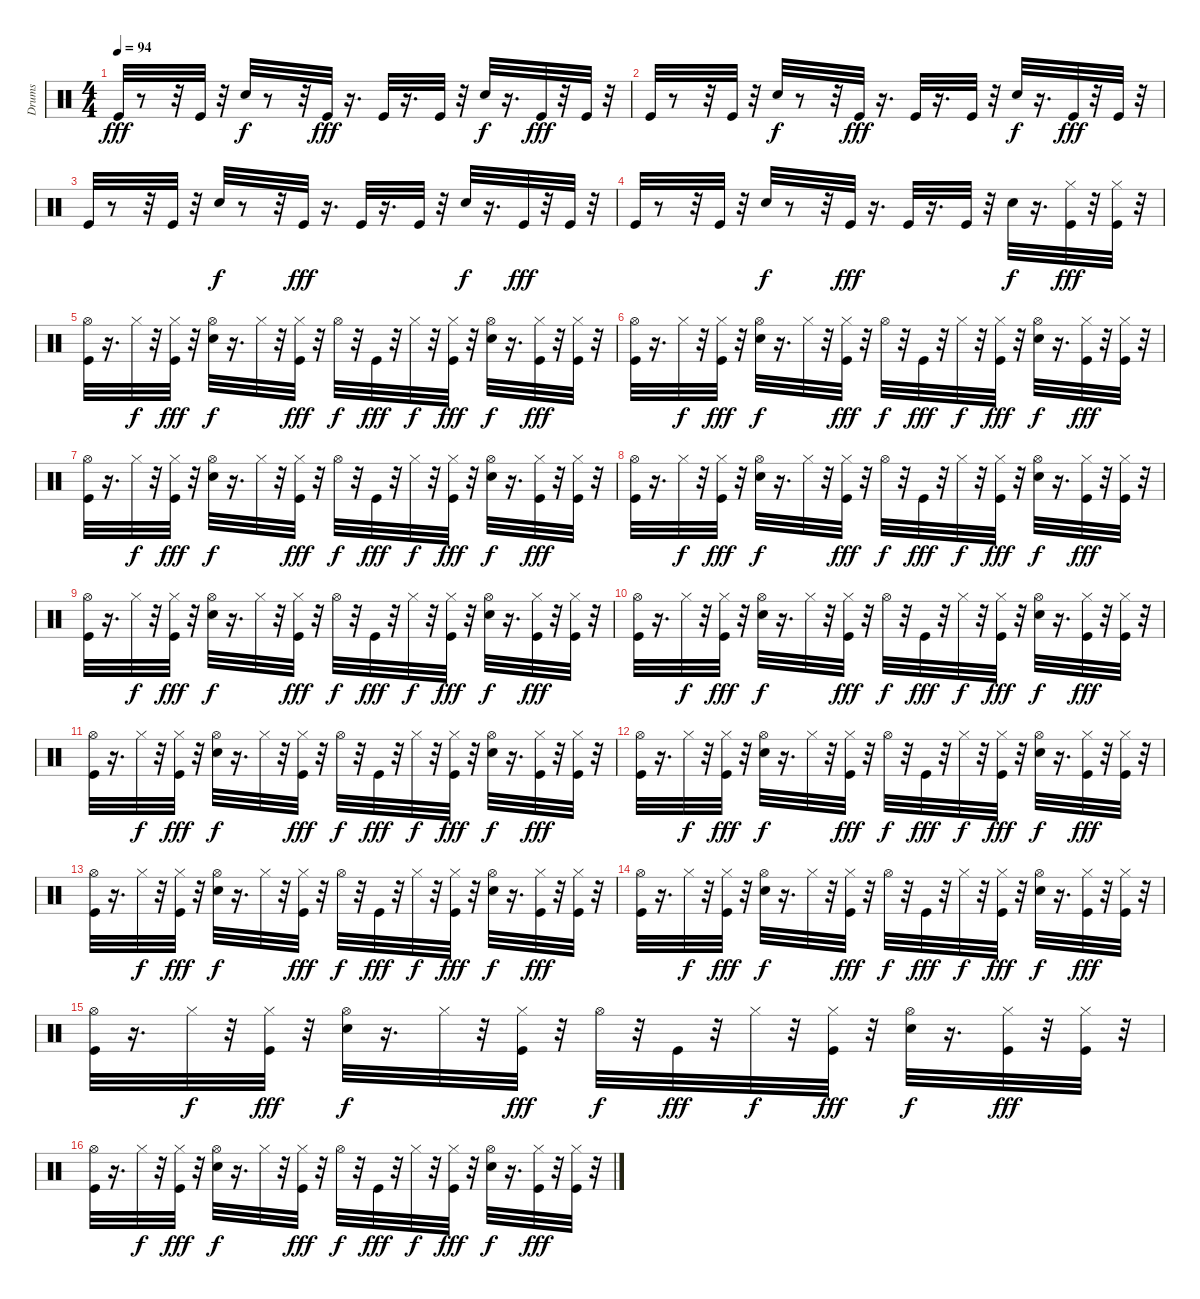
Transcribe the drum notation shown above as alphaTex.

\track ("Drums" "Drums") {instrument percussion}
\staff {score}
\articulation defaults
\ts (4 4)
\tempo 94
\clef neutral
\ks c "Kick (hit)".32{dy fff}
r.8 r.32 "Kick (hit)".32 r.32 "Snare (hit) 2".32{dy f} r.8 r.32 "Kick (hit)".32{dy fff} r.16{d} "Kick (hit)".32 r.16{d} "Kick (hit)".32 r.32 "Snare (hit) 2".32{dy f} r.16{d} "Kick (hit)".32{dy fff} r.32 "Kick (hit)".32 r.32 |
"Kick (hit)".32 r.8 r.32 "Kick (hit)".32 r.32 "Snare (hit) 2".32{dy f} r.8 r.32 "Kick (hit)".32{dy fff} r.16{d} "Kick (hit)".32 r.16{d} "Kick (hit)".32 r.32 "Snare (hit) 2".32{dy f} r.16{d} "Kick (hit)".32{dy fff} r.32 "Kick (hit)".32 r.32 |
"Kick (hit)".32 r.8 r.32 "Kick (hit)".32 r.32 "Snare (hit) 2".32{dy f} r.8 r.32 "Kick (hit)".32{dy fff} r.16{d} "Kick (hit)".32 r.16{d} "Kick (hit)".32 r.32 "Snare (hit) 2".32{dy f} r.16{d} "Kick (hit)".32{dy fff} r.32 "Kick (hit)".32 r.32 |
"Kick (hit)".32 r.8 r.32 "Kick (hit)".32 r.32 "Snare (hit) 2".32{dy f} r.8 r.32 "Kick (hit)".32{dy fff} r.16{d} "Kick (hit)".32 r.16{d} "Kick (hit)".32 r.32 "Snare (hit) 2".32{dy f} r.16{d} ("Kick (hit)" "Hi-Hat (closed)").32{dy fff} r.32 ("Kick (hit)" "Hi-Hat (closed)").32 r.32 |
("Kick (hit)" "Hi-Hat (open)").32 r.16{d} "Hi-Hat (closed)".32{dy f} r.32 ("Kick (hit)" "Hi-Hat (closed)").32{dy fff} r.32 ("Snare (hit) 2" "Hi-Hat (open)").32{dy f} r.16{d} "Hi-Hat (closed)".32 r.32 ("Kick (hit)" "Hi-Hat (closed)").32{dy fff} r.32 "Hi-Hat (open)".32{dy f} r.32 "Kick (hit)".32{dy fff} r.32 "Hi-Hat (closed)".32{dy f} r.32 ("Kick (hit)" "Hi-Hat (closed)").32{dy fff} r.32 ("Snare (hit) 2" "Hi-Hat (open)").32{dy f} r.16{d} ("Kick (hit)" "Hi-Hat (closed)").32{dy fff} r.32 ("Kick (hit)" "Hi-Hat (closed)").32 r.32 |
("Kick (hit)" "Hi-Hat (open)").32 r.16{d} "Hi-Hat (closed)".32{dy f} r.32 ("Kick (hit)" "Hi-Hat (closed)").32{dy fff} r.32 ("Snare (hit) 2" "Hi-Hat (open)").32{dy f} r.16{d} "Hi-Hat (closed)".32 r.32 ("Kick (hit)" "Hi-Hat (closed)").32{dy fff} r.32 "Hi-Hat (open)".32{dy f} r.32 "Kick (hit)".32{dy fff} r.32 "Hi-Hat (closed)".32{dy f} r.32 ("Kick (hit)" "Hi-Hat (closed)").32{dy fff} r.32 ("Snare (hit) 2" "Hi-Hat (open)").32{dy f} r.16{d} ("Kick (hit)" "Hi-Hat (closed)").32{dy fff} r.32 ("Kick (hit)" "Hi-Hat (closed)").32 r.32 |
("Kick (hit)" "Hi-Hat (open)").32 r.16{d} "Hi-Hat (closed)".32{dy f} r.32 ("Kick (hit)" "Hi-Hat (closed)").32{dy fff} r.32 ("Snare (hit) 2" "Hi-Hat (open)").32{dy f} r.16{d} "Hi-Hat (closed)".32 r.32 ("Kick (hit)" "Hi-Hat (closed)").32{dy fff} r.32 "Hi-Hat (open)".32{dy f} r.32 "Kick (hit)".32{dy fff} r.32 "Hi-Hat (closed)".32{dy f} r.32 ("Kick (hit)" "Hi-Hat (closed)").32{dy fff} r.32 ("Snare (hit) 2" "Hi-Hat (open)").32{dy f} r.16{d} ("Kick (hit)" "Hi-Hat (closed)").32{dy fff} r.32 ("Kick (hit)" "Hi-Hat (closed)").32 r.32 |
("Kick (hit)" "Hi-Hat (open)").32 r.16{d} "Hi-Hat (closed)".32{dy f} r.32 ("Kick (hit)" "Hi-Hat (closed)").32{dy fff} r.32 ("Snare (hit) 2" "Hi-Hat (open)").32{dy f} r.16{d} "Hi-Hat (closed)".32 r.32 ("Kick (hit)" "Hi-Hat (closed)").32{dy fff} r.32 "Hi-Hat (open)".32{dy f} r.32 "Kick (hit)".32{dy fff} r.32 "Hi-Hat (closed)".32{dy f} r.32 ("Kick (hit)" "Hi-Hat (closed)").32{dy fff} r.32 ("Snare (hit) 2" "Hi-Hat (open)").32{dy f} r.16{d} ("Kick (hit)" "Hi-Hat (closed)").32{dy fff} r.32 ("Kick (hit)" "Hi-Hat (closed)").32 r.32 |
("Kick (hit)" "Hi-Hat (open)").32 r.16{d} "Hi-Hat (closed)".32{dy f} r.32 ("Kick (hit)" "Hi-Hat (closed)").32{dy fff} r.32 ("Snare (hit) 2" "Hi-Hat (open)").32{dy f} r.16{d} "Hi-Hat (closed)".32 r.32 ("Kick (hit)" "Hi-Hat (closed)").32{dy fff} r.32 "Hi-Hat (open)".32{dy f} r.32 "Kick (hit)".32{dy fff} r.32 "Hi-Hat (closed)".32{dy f} r.32 ("Kick (hit)" "Hi-Hat (closed)").32{dy fff} r.32 ("Snare (hit) 2" "Hi-Hat (open)").32{dy f} r.16{d} ("Kick (hit)" "Hi-Hat (closed)").32{dy fff} r.32 ("Kick (hit)" "Hi-Hat (closed)").32 r.32 |
("Kick (hit)" "Hi-Hat (open)").32 r.16{d} "Hi-Hat (closed)".32{dy f} r.32 ("Kick (hit)" "Hi-Hat (closed)").32{dy fff} r.32 ("Snare (hit) 2" "Hi-Hat (open)").32{dy f} r.16{d} "Hi-Hat (closed)".32 r.32 ("Kick (hit)" "Hi-Hat (closed)").32{dy fff} r.32 "Hi-Hat (open)".32{dy f} r.32 "Kick (hit)".32{dy fff} r.32 "Hi-Hat (closed)".32{dy f} r.32 ("Kick (hit)" "Hi-Hat (closed)").32{dy fff} r.32 ("Snare (hit) 2" "Hi-Hat (open)").32{dy f} r.16{d} ("Kick (hit)" "Hi-Hat (closed)").32{dy fff} r.32 ("Kick (hit)" "Hi-Hat (closed)").32 r.32 |
("Kick (hit)" "Hi-Hat (open)").32 r.16{d} "Hi-Hat (closed)".32{dy f} r.32 ("Kick (hit)" "Hi-Hat (closed)").32{dy fff} r.32 ("Snare (hit) 2" "Hi-Hat (open)").32{dy f} r.16{d} "Hi-Hat (closed)".32 r.32 ("Kick (hit)" "Hi-Hat (closed)").32{dy fff} r.32 "Hi-Hat (open)".32{dy f} r.32 "Kick (hit)".32{dy fff} r.32 "Hi-Hat (closed)".32{dy f} r.32 ("Kick (hit)" "Hi-Hat (closed)").32{dy fff} r.32 ("Snare (hit) 2" "Hi-Hat (open)").32{dy f} r.16{d} ("Kick (hit)" "Hi-Hat (closed)").32{dy fff} r.32 ("Kick (hit)" "Hi-Hat (closed)").32 r.32 |
("Kick (hit)" "Hi-Hat (open)").32 r.16{d} "Hi-Hat (closed)".32{dy f} r.32 ("Kick (hit)" "Hi-Hat (closed)").32{dy fff} r.32 ("Snare (hit) 2" "Hi-Hat (open)").32{dy f} r.16{d} "Hi-Hat (closed)".32 r.32 ("Kick (hit)" "Hi-Hat (closed)").32{dy fff} r.32 "Hi-Hat (open)".32{dy f} r.32 "Kick (hit)".32{dy fff} r.32 "Hi-Hat (closed)".32{dy f} r.32 ("Kick (hit)" "Hi-Hat (closed)").32{dy fff} r.32 ("Snare (hit) 2" "Hi-Hat (open)").32{dy f} r.16{d} ("Kick (hit)" "Hi-Hat (closed)").32{dy fff} r.32 ("Kick (hit)" "Hi-Hat (closed)").32 r.32 |
("Kick (hit)" "Hi-Hat (open)").32 r.16{d} "Hi-Hat (closed)".32{dy f} r.32 ("Kick (hit)" "Hi-Hat (closed)").32{dy fff} r.32 ("Snare (hit) 2" "Hi-Hat (open)").32{dy f} r.16{d} "Hi-Hat (closed)".32 r.32 ("Kick (hit)" "Hi-Hat (closed)").32{dy fff} r.32 "Hi-Hat (open)".32{dy f} r.32 "Kick (hit)".32{dy fff} r.32 "Hi-Hat (closed)".32{dy f} r.32 ("Kick (hit)" "Hi-Hat (closed)").32{dy fff} r.32 ("Snare (hit) 2" "Hi-Hat (open)").32{dy f} r.16{d} ("Kick (hit)" "Hi-Hat (closed)").32{dy fff} r.32 ("Kick (hit)" "Hi-Hat (closed)").32 r.32 |
("Kick (hit)" "Hi-Hat (open)").32 r.16{d} "Hi-Hat (closed)".32{dy f} r.32 ("Kick (hit)" "Hi-Hat (closed)").32{dy fff} r.32 ("Snare (hit) 2" "Hi-Hat (open)").32{dy f} r.16{d} "Hi-Hat (closed)".32 r.32 ("Kick (hit)" "Hi-Hat (closed)").32{dy fff} r.32 "Hi-Hat (open)".32{dy f} r.32 "Kick (hit)".32{dy fff} r.32 "Hi-Hat (closed)".32{dy f} r.32 ("Kick (hit)" "Hi-Hat (closed)").32{dy fff} r.32 ("Snare (hit) 2" "Hi-Hat (open)").32{dy f} r.16{d} ("Kick (hit)" "Hi-Hat (closed)").32{dy fff} r.32 ("Kick (hit)" "Hi-Hat (closed)").32 r.32 |
("Kick (hit)" "Hi-Hat (open)").32 r.16{d} "Hi-Hat (closed)".32{dy f} r.32 ("Kick (hit)" "Hi-Hat (closed)").32{dy fff} r.32 ("Snare (hit) 2" "Hi-Hat (open)").32{dy f} r.16{d} "Hi-Hat (closed)".32 r.32 ("Kick (hit)" "Hi-Hat (closed)").32{dy fff} r.32 "Hi-Hat (open)".32{dy f} r.32 "Kick (hit)".32{dy fff} r.32 "Hi-Hat (closed)".32{dy f} r.32 ("Kick (hit)" "Hi-Hat (closed)").32{dy fff} r.32 ("Snare (hit) 2" "Hi-Hat (open)").32{dy f} r.16{d} ("Kick (hit)" "Hi-Hat (closed)").32{dy fff} r.32 ("Kick (hit)" "Hi-Hat (closed)").32 r.32 |
("Kick (hit)" "Hi-Hat (open)").32 r.16{d} "Hi-Hat (closed)".32{dy f} r.32 ("Kick (hit)" "Hi-Hat (closed)").32{dy fff} r.32 ("Snare (hit) 2" "Hi-Hat (open)").32{dy f} r.16{d} "Hi-Hat (closed)".32 r.32 ("Kick (hit)" "Hi-Hat (closed)").32{dy fff} r.32 "Hi-Hat (open)".32{dy f} r.32 "Kick (hit)".32{dy fff} r.32 "Hi-Hat (closed)".32{dy f} r.32 ("Kick (hit)" "Hi-Hat (closed)").32{dy fff} r.32 ("Snare (hit) 2" "Hi-Hat (open)").32{dy f} r.16{d} ("Kick (hit)" "Hi-Hat (closed)").32{dy fff} r.32 ("Kick (hit)" "Hi-Hat (closed)").32 r.32
